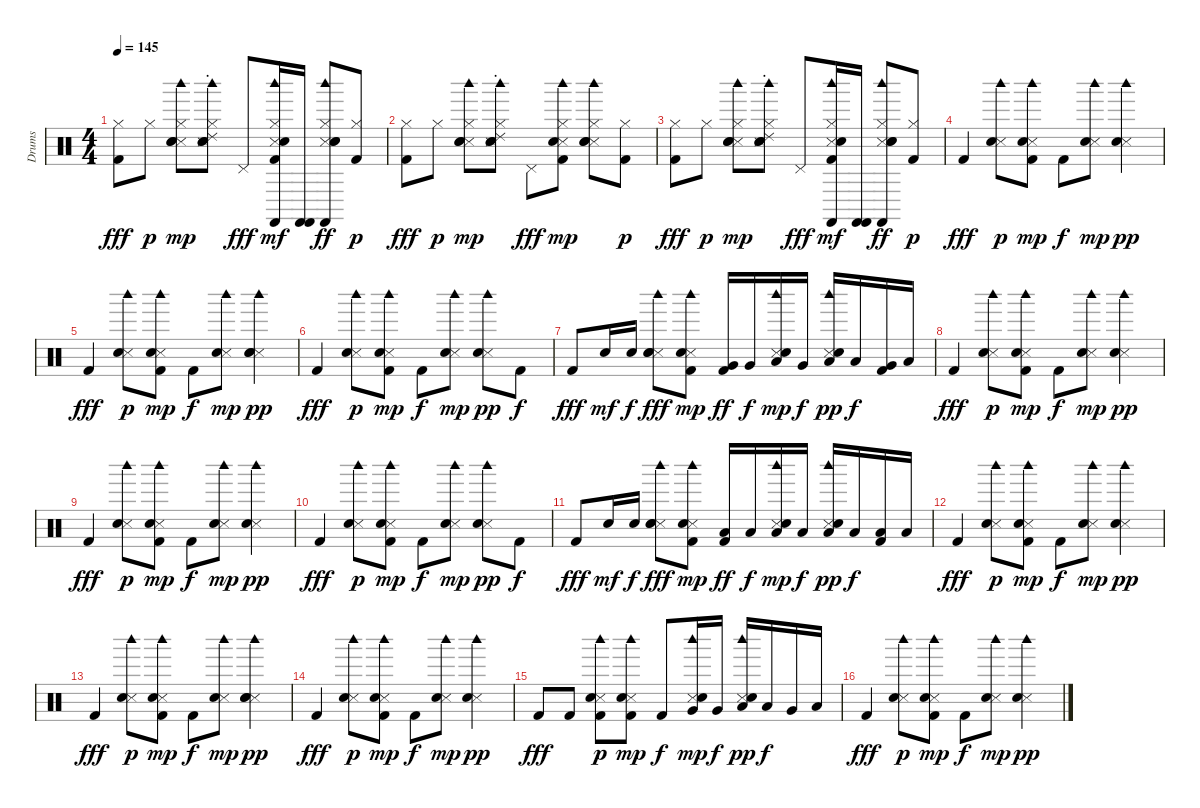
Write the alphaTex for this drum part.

\track ("Drums" "Drums") {instrument percussion}
\staff {score}
\articulation defaults
\ts (4 4)
\tempo 145
\clef neutral
\ks c
("Kick (hit) 2" "Hi-Hat (closed)").8{dy fff} "Hi-Hat (closed)".8{dy p} ("Snare (side stick) 3" "Hand Clap (hit)" "Electric Snare (hit)" "Hi-Hat (closed)" "Woodblock high (hit)").8{dy mp} ("Ride (choke) 2" "Snare (side stick) 3" "Hand Clap (hit)" "Electric Snare (hit)" "Hi-Hat (closed)" "Woodblock high (hit)").8 "Pedal Hi-Hat (hit)".8{dy fff} ("Kick (hit) 2" "Snare (side stick) 3" "Hand Clap (hit)" "Hi-Hat (closed)" "Woodblock high (hit)" "Castanets (hit)").16{dy mf} ("Castanets (hit)" "Castanets (hit)").16 ("Snare (side stick) 3" "Hand Clap (hit)" "Electric Snare (hit)" "Hi-Hat (closed)" "Woodblock high (hit)" "Castanets (hit)").8{dy ff} ("Kick (hit) 2" "Hi-Hat (closed)").8{dy p} |
("Kick (hit) 2" "Hi-Hat (closed)").8{dy fff} "Hi-Hat (closed)".8{dy p} ("Snare (side stick) 3" "Hand Clap (hit)" "Electric Snare (hit)" "Hi-Hat (closed)" "Woodblock high (hit)").8{dy mp} ("Ride (choke) 2" "Snare (side stick) 3" "Hand Clap (hit)" "Electric Snare (hit)" "Hi-Hat (closed)" "Woodblock high (hit)").8 "Pedal Hi-Hat (hit)".8{dy fff} ("Kick (hit) 2" "Snare (side stick) 3" "Hand Clap (hit)" "Hi-Hat (closed)" "Woodblock high (hit)").8{dy mp} ("Snare (side stick) 3" "Hand Clap (hit)" "Electric Snare (hit)" "Hi-Hat (closed)" "Woodblock high (hit)").8 ("Kick (hit) 2" "Hi-Hat (closed)").8{dy p} |
("Kick (hit) 2" "Hi-Hat (closed)").8{dy fff} "Hi-Hat (closed)".8{dy p} ("Snare (side stick) 3" "Hand Clap (hit)" "Electric Snare (hit)" "Hi-Hat (closed)" "Woodblock high (hit)").8{dy mp} ("Ride (choke) 2" "Snare (side stick) 3" "Hand Clap (hit)" "Electric Snare (hit)" "Hi-Hat (closed)" "Woodblock high (hit)").8 "Pedal Hi-Hat (hit)".8{dy fff} ("Kick (hit) 2" "Snare (side stick) 3" "Hand Clap (hit)" "Hi-Hat (closed)" "Woodblock high (hit)" "Castanets (hit)").16{dy mf} ("Castanets (hit)" "Castanets (hit)").16 ("Snare (side stick) 3" "Hand Clap (hit)" "Electric Snare (hit)" "Hi-Hat (closed)" "Woodblock high (hit)" "Castanets (hit)").8{dy ff} ("Kick (hit) 2" "Hi-Hat (closed)").8{dy p} |
"Kick (hit) 2".4{dy fff} ("Snare (side stick) 3" "Hand Clap (hit)" "Woodblock high (hit)").8{dy p} ("Kick (hit) 2" "Snare (side stick) 3" "Hand Clap (hit)" "Woodblock high (hit)").8{dy mp} "Kick (hit) 2".8{dy f} ("Snare (side stick) 3" "Hand Clap (hit)" "Woodblock high (hit)").8{dy mp} ("Snare (side stick) 3" "Hand Clap (hit)" "Woodblock high (hit)").4{dy pp} |
"Kick (hit) 2".4{dy fff} ("Snare (side stick) 3" "Hand Clap (hit)" "Woodblock high (hit)").8{dy p} ("Kick (hit) 2" "Snare (side stick) 3" "Hand Clap (hit)" "Woodblock high (hit)").8{dy mp} "Kick (hit) 2".8{dy f} ("Snare (side stick) 3" "Hand Clap (hit)" "Woodblock high (hit)").8{dy mp} ("Snare (side stick) 3" "Hand Clap (hit)" "Electric Snare (hit)" "Woodblock high (hit)").4{dy pp} |
"Kick (hit) 2".4{dy fff} ("Snare (side stick) 3" "Hand Clap (hit)" "Woodblock high (hit)").8{dy p} ("Kick (hit) 2" "Snare (side stick) 3" "Hand Clap (hit)" "Woodblock high (hit)").8{dy mp} "Kick (hit) 2".8{dy f} ("Snare (side stick) 3" "Hand Clap (hit)" "Woodblock high (hit)").8{dy mp} ("Snare (side stick) 3" "Hand Clap (hit)" "Woodblock high (hit)").8{dy pp} "Kick (hit) 2".8{dy f} |
"Kick (hit) 2".8{dy fff} "Electric Snare (hit)".16{dy mf} "Electric Snare (hit)".16{dy f} ("Snare (side stick) 3" "Hand Clap (hit)" "Electric Snare (hit)" "Woodblock high (hit)").8{dy fff} ("Kick (hit) 2" "Snare (side stick) 3" "Hand Clap (hit)" "Woodblock high (hit)").8{dy mp} ("Kick (hit) 2" "Very Low Tom (hit)").16{dy ff} "Very Low Tom (hit)".16{dy f} ("Snare (side stick) 3" "Hand Clap (hit)" "Low Floor Tom (hit)" "Woodblock high (hit)").16{dy mp} "Very Low Tom (hit)".16{dy f} ("Snare (side stick) 3" "Hand Clap (hit)" "Low Tom (hit)" "Woodblock high (hit)").16{dy pp} "Low Tom (hit)".16{dy f} ("Kick (hit) 2" "Very Low Tom (hit)").16 "Low Floor Tom (hit)".16 |
"Kick (hit) 2".4{dy fff} ("Snare (side stick) 3" "Hand Clap (hit)" "Woodblock high (hit)").8{dy p} ("Kick (hit) 2" "Snare (side stick) 3" "Hand Clap (hit)" "Woodblock high (hit)").8{dy mp} "Kick (hit) 2".8{dy f} ("Snare (side stick) 3" "Hand Clap (hit)" "Woodblock high (hit)").8{dy mp} ("Snare (side stick) 3" "Hand Clap (hit)" "Woodblock high (hit)").4{dy pp} |
"Kick (hit) 2".4{dy fff} ("Snare (side stick) 3" "Hand Clap (hit)" "Woodblock high (hit)").8{dy p} ("Kick (hit) 2" "Snare (side stick) 3" "Hand Clap (hit)" "Woodblock high (hit)").8{dy mp} "Kick (hit) 2".8{dy f} ("Snare (side stick) 3" "Hand Clap (hit)" "Woodblock high (hit)").8{dy mp} ("Snare (side stick) 3" "Hand Clap (hit)" "Woodblock high (hit)").4{dy pp} |
"Kick (hit) 2".4{dy fff} ("Snare (side stick) 3" "Hand Clap (hit)" "Woodblock high (hit)").8{dy p} ("Kick (hit) 2" "Snare (side stick) 3" "Hand Clap (hit)" "Woodblock high (hit)").8{dy mp} "Kick (hit) 2".8{dy f} ("Snare (side stick) 3" "Hand Clap (hit)" "Woodblock high (hit)").8{dy mp} ("Snare (side stick) 3" "Hand Clap (hit)" "Woodblock high (hit)").8{dy pp} "Kick (hit) 2".8{dy f} |
"Kick (hit) 2".8{dy fff} "Electric Snare (hit)".16{dy mf} "Electric Snare (hit)".16{dy f} ("Snare (side stick) 3" "Hand Clap (hit)" "Electric Snare (hit)" "Woodblock high (hit)").8{dy fff} ("Kick (hit) 2" "Snare (side stick) 3" "Hand Clap (hit)" "Woodblock high (hit)").8{dy mp} ("Kick (hit) 2" "Low Tom (hit)").16{dy ff} "Low Tom (hit)".16{dy f} ("Snare (side stick) 3" "Hand Clap (hit)" "Low Tom (hit)" "Woodblock high (hit)").16{dy mp} "Low Tom (hit)".16{dy f} ("Snare (side stick) 3" "Hand Clap (hit)" "Low Tom (hit)" "Woodblock high (hit)").16{dy pp} "Low Tom (hit)".16{dy f} ("Kick (hit) 2" "Low Tom (hit)").16 "Low Tom (hit)".16 |
"Kick (hit) 2".4{dy fff} ("Snare (side stick) 3" "Hand Clap (hit)" "Woodblock high (hit)").8{dy p} ("Kick (hit) 2" "Snare (side stick) 3" "Hand Clap (hit)" "Woodblock high (hit)").8{dy mp} "Kick (hit) 2".8{dy f} ("Snare (side stick) 3" "Hand Clap (hit)" "Woodblock high (hit)").8{dy mp} ("Snare (side stick) 3" "Hand Clap (hit)" "Woodblock high (hit)").4{dy pp} |
"Kick (hit) 2".4{dy fff} ("Snare (side stick) 3" "Hand Clap (hit)" "Woodblock high (hit)").8{dy p} ("Kick (hit) 2" "Snare (side stick) 3" "Hand Clap (hit)" "Woodblock high (hit)").8{dy mp} "Kick (hit) 2".8{dy f} ("Snare (side stick) 3" "Hand Clap (hit)" "Woodblock high (hit)").8{dy mp} ("Snare (side stick) 3" "Hand Clap (hit)" "Electric Snare (hit)" "Woodblock high (hit)").4{dy pp} |
"Kick (hit) 2".4{dy fff} ("Snare (side stick) 3" "Hand Clap (hit)" "Woodblock high (hit)").8{dy p} ("Kick (hit) 2" "Snare (side stick) 3" "Hand Clap (hit)" "Woodblock high (hit)").8{dy mp} "Kick (hit) 2".8{dy f} ("Snare (side stick) 3" "Hand Clap (hit)" "Woodblock high (hit)").8{dy mp} ("Snare (side stick) 3" "Hand Clap (hit)" "Woodblock high (hit)").4{dy pp} |
"Kick (hit) 2".8{dy fff} "Kick (hit) 2".8 ("Kick (hit) 2" "Snare (side stick) 3" "Hand Clap (hit)" "Woodblock high (hit)").8{dy p} ("Kick (hit) 2" "Snare (side stick) 3" "Hand Clap (hit)" "Woodblock high (hit)").8{dy mp} "Kick (hit) 2".8{dy f} ("Snare (side stick) 3" "Hand Clap (hit)" "Very Low Tom (hit)" "Woodblock high (hit)").16{dy mp} "Very Low Tom (hit)".16{dy f} ("Snare (side stick) 3" "Hand Clap (hit)" "Low Tom (hit)" "Woodblock high (hit)").16{dy pp} "Low Tom (hit)".16{dy f} "Very Low Tom (hit)".16 "Low Floor Tom (hit)".16 |
"Kick (hit) 2".4{dy fff} ("Snare (side stick) 3" "Hand Clap (hit)" "Woodblock high (hit)").8{dy p} ("Kick (hit) 2" "Snare (side stick) 3" "Hand Clap (hit)" "Woodblock high (hit)").8{dy mp} "Kick (hit) 2".8{dy f} ("Snare (side stick) 3" "Hand Clap (hit)" "Woodblock high (hit)").8{dy mp} ("Snare (side stick) 3" "Hand Clap (hit)" "Woodblock high (hit)").4{dy pp}
